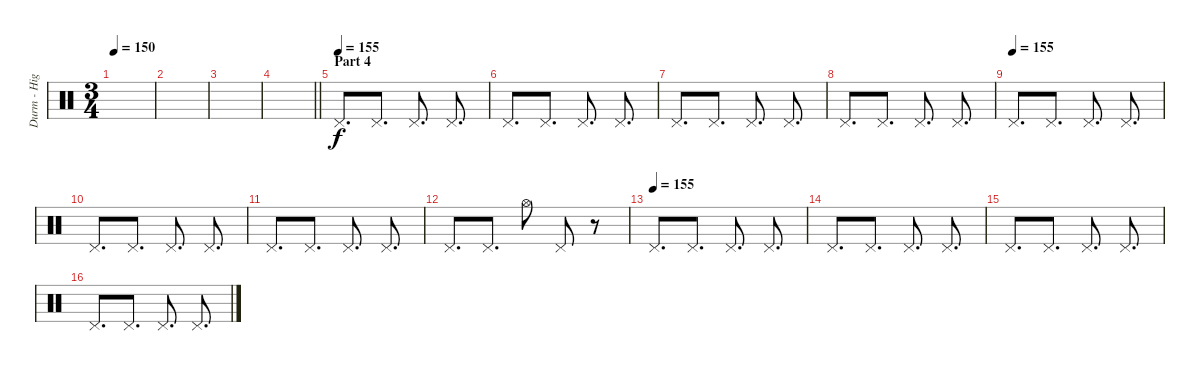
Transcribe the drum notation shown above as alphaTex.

\track ("Durm - High Hat" "Durm - Hig") {instrument percussion}
\staff {score}
\articulation defaults
\ts (3 4)
\tempo 150
\clef neutral
\ks c
|
|
|
\barLineRight lightlight
|
\section ("" "Part 4")
\tempo (155)
"Pedal Hi-Hat (hit)".8{d} "Pedal Hi-Hat (hit)".8{d} "Pedal Hi-Hat (hit)".8{d} "Pedal Hi-Hat (hit)".8{d} |
"Pedal Hi-Hat (hit)".8{d} "Pedal Hi-Hat (hit)".8{d} "Pedal Hi-Hat (hit)".8{d} "Pedal Hi-Hat (hit)".8{d} |
"Pedal Hi-Hat (hit)".8{d} "Pedal Hi-Hat (hit)".8{d} "Pedal Hi-Hat (hit)".8{d} "Pedal Hi-Hat (hit)".8{d} |
"Pedal Hi-Hat (hit)".8{d} "Pedal Hi-Hat (hit)".8{d} "Pedal Hi-Hat (hit)".8{d} "Pedal Hi-Hat (hit)".8{d} |
\tempo (155)
"Pedal Hi-Hat (hit)".8{d} "Pedal Hi-Hat (hit)".8{d} "Pedal Hi-Hat (hit)".8{d} "Pedal Hi-Hat (hit)".8{d} |
"Pedal Hi-Hat (hit)".8{d} "Pedal Hi-Hat (hit)".8{d} "Pedal Hi-Hat (hit)".8{d} "Pedal Hi-Hat (hit)".8{d} |
"Pedal Hi-Hat (hit)".8{d} "Pedal Hi-Hat (hit)".8{d} "Pedal Hi-Hat (hit)".8{d} "Pedal Hi-Hat (hit)".8{d} |
"Pedal Hi-Hat (hit)".8{d} "Pedal Hi-Hat (hit)".8{d} "Hi-Hat (open)".8 "Pedal Hi-Hat (hit)".8 r.8 |
\tempo (155)
"Pedal Hi-Hat (hit)".8{d} "Pedal Hi-Hat (hit)".8{d} "Pedal Hi-Hat (hit)".8{d} "Pedal Hi-Hat (hit)".8{d} |
"Pedal Hi-Hat (hit)".8{d} "Pedal Hi-Hat (hit)".8{d} "Pedal Hi-Hat (hit)".8{d} "Pedal Hi-Hat (hit)".8{d} |
"Pedal Hi-Hat (hit)".8{d} "Pedal Hi-Hat (hit)".8{d} "Pedal Hi-Hat (hit)".8{d} "Pedal Hi-Hat (hit)".8{d} |
"Pedal Hi-Hat (hit)".8{d} "Pedal Hi-Hat (hit)".8{d} "Pedal Hi-Hat (hit)".8{d} "Pedal Hi-Hat (hit)".8{d}
